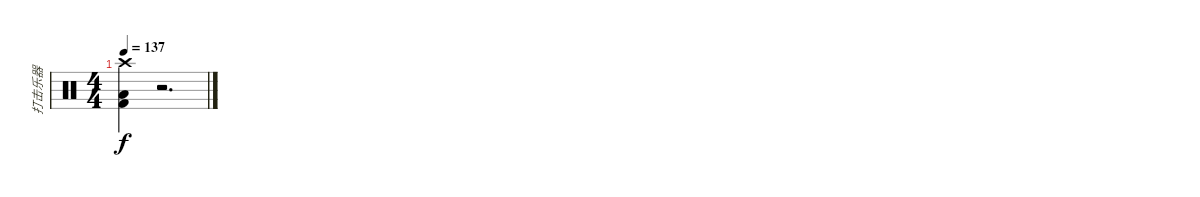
\track ("打击乐器" "打击乐器") {instrument percussion}
\staff {score}
\articulation defaults
\ts (4 4)
\tempo 137
\clef neutral
\ks c
("Crash high (hit)" "Kick (hit) 2" "Low Floor Tom (hit)").4{dy f} r.2{d}
